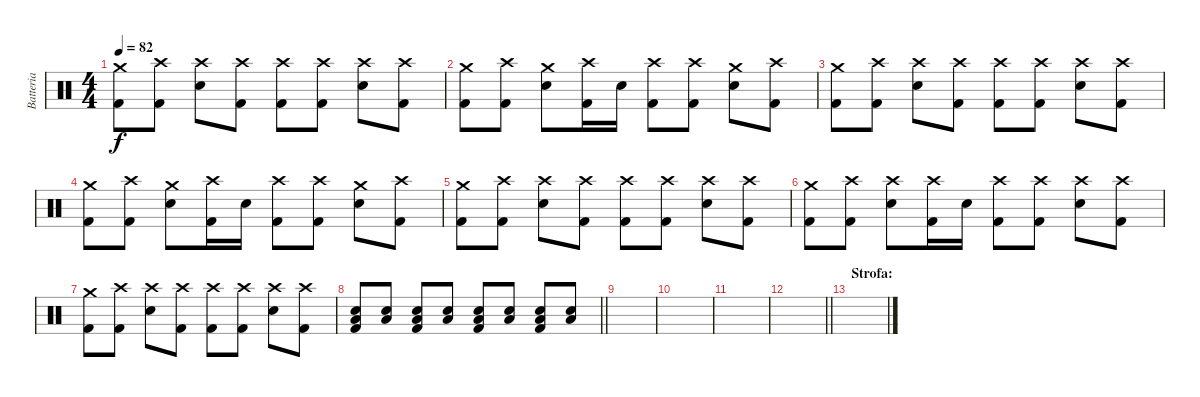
\track ("Batteria" "Batteria") {instrument percussion}
\staff {score}
\articulation defaults
\ts (4 4)
\tempo 82
\clef neutral
\ks c
("Crash medium (hit)" "Kick (hit) 2").8{dy f} ("Crash high (hit)" "Kick (hit) 2").8 ("Crash high (hit)" "Snare (hit) 2").8 ("Crash high (hit)" "Kick (hit) 2").8 ("Crash high (hit)" "Kick (hit) 2").8 ("Crash high (hit)" "Kick (hit) 2").8 ("Crash high (hit)" "Snare (hit) 2").8 ("Crash high (hit)" "Kick (hit) 2").8 |
("Crash medium (hit)" "Kick (hit) 2").8 ("Crash high (hit)" "Kick (hit) 2").8 ("Crash medium (hit)" "Snare (hit) 2").8 ("Crash high (hit)" "Kick (hit) 2").16 "Snare (hit) 2".16 ("Crash high (hit)" "Kick (hit) 2").8 ("Crash high (hit)" "Kick (hit) 2").8 ("Crash medium (hit)" "Snare (hit) 2").8 ("Crash high (hit)" "Kick (hit) 2").8 |
("Crash medium (hit)" "Kick (hit) 2").8 ("Crash high (hit)" "Kick (hit) 2").8 ("Crash high (hit)" "Snare (hit) 2").8 ("Crash high (hit)" "Kick (hit) 2").8 ("Crash high (hit)" "Kick (hit) 2").8 ("Crash high (hit)" "Kick (hit) 2").8 ("Crash high (hit)" "Snare (hit) 2").8 ("Crash high (hit)" "Kick (hit) 2").8 |
("Crash medium (hit)" "Kick (hit) 2").8 ("Crash high (hit)" "Kick (hit) 2").8 ("Crash medium (hit)" "Snare (hit) 2").8 ("Crash high (hit)" "Kick (hit) 2").16 "Snare (hit) 2".16 ("Crash high (hit)" "Kick (hit) 2").8 ("Crash high (hit)" "Kick (hit) 2").8 ("Crash medium (hit)" "Snare (hit) 2").8 ("Crash high (hit)" "Kick (hit) 2").8 |
("Crash medium (hit)" "Kick (hit) 2").8 ("Crash high (hit)" "Kick (hit) 2").8 ("Crash high (hit)" "Snare (hit) 2").8 ("Crash high (hit)" "Kick (hit) 2").8 ("Crash high (hit)" "Kick (hit) 2").8 ("Crash high (hit)" "Kick (hit) 2").8 ("Crash high (hit)" "Snare (hit) 2").8 ("Crash high (hit)" "Kick (hit) 2").8 |
("Crash medium (hit)" "Kick (hit) 2").8 ("Crash high (hit)" "Kick (hit) 2").8 ("Crash high (hit)" "Snare (hit) 2").8 ("Crash high (hit)" "Kick (hit) 2").16 "Snare (hit) 2".16 ("Crash high (hit)" "Kick (hit) 2").8 ("Crash high (hit)" "Kick (hit) 2").8 ("Crash high (hit)" "Snare (hit) 2").8 ("Crash high (hit)" "Kick (hit) 2").8 |
("Crash medium (hit)" "Kick (hit) 2").8 ("Crash high (hit)" "Kick (hit) 2").8 ("Crash high (hit)" "Snare (hit) 2").8 ("Crash high (hit)" "Kick (hit) 2").8 ("Crash high (hit)" "Kick (hit) 2").8 ("Crash high (hit)" "Kick (hit) 2").8 ("Crash high (hit)" "Snare (hit) 2").8 ("Crash high (hit)" "Kick (hit) 2").8 |
\barLineRight lightlight
("Low Floor Tom (hit)" "Snare (hit) 2" "Kick (hit) 2").8 ("Low Floor Tom (hit)" "Snare (hit) 2").8 ("Low Floor Tom (hit)" "Snare (hit) 2" "Kick (hit) 2").8 ("Low Floor Tom (hit)" "Snare (hit) 2").8 ("Low Floor Tom (hit)" "Snare (hit) 2" "Kick (hit) 2").8 ("Low Floor Tom (hit)" "Snare (hit) 2").8 ("Low Floor Tom (hit)" "Snare (hit) 2" "Kick (hit) 2").8 ("Low Floor Tom (hit)" "Snare (hit) 2").8 |
|
|
|
\barLineRight lightlight
|
\section ("" "Strofa:")
